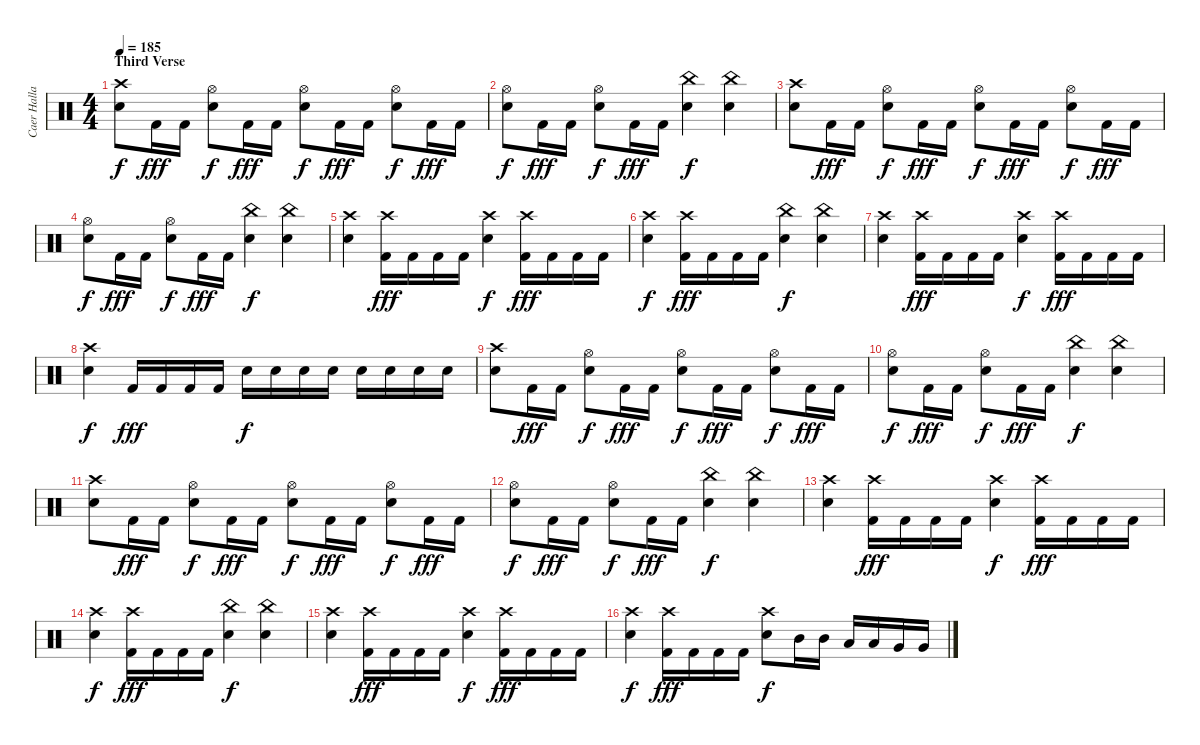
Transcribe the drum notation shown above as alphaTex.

\track ("Caer Hallam Generis" "Caer Halla") {instrument percussion}
\staff {score}
\articulation defaults
\ts (4 4)
\section ("" "Third Verse")
\tempo 185
\clef neutral
\ks c
("Crash high (hit)" "Snare (hit) 2").8{dy f} "Kick (hit) 2".16{dy fff} "Kick (hit) 2".16 ("Hi-Hat (open)" "Snare (hit) 2").8{dy f} "Kick (hit) 2".16{dy fff} "Kick (hit) 2".16 ("Hi-Hat (open)" "Snare (hit) 2").8{dy f} "Kick (hit) 2".16{dy fff} "Kick (hit) 2".16 ("Hi-Hat (open)" "Snare (hit) 2").8{dy f} "Kick (hit) 2".16{dy fff} "Kick (hit) 2".16 |
("Hi-Hat (open)" "Snare (hit) 2").8{dy f} "Kick (hit) 2".16{dy fff} "Kick (hit) 2".16 ("Hi-Hat (open)" "Snare (hit) 2").8{dy f} "Kick (hit) 2".16{dy fff} "Kick (hit) 2".16 ("China (hit)" "Snare (hit) 2").4{dy f} ("China (hit)" "Snare (hit) 2").4 |
("Crash high (hit)" "Snare (hit) 2").8 "Kick (hit) 2".16{dy fff} "Kick (hit) 2".16 ("Hi-Hat (open)" "Snare (hit) 2").8{dy f} "Kick (hit) 2".16{dy fff} "Kick (hit) 2".16 ("Hi-Hat (open)" "Snare (hit) 2").8{dy f} "Kick (hit) 2".16{dy fff} "Kick (hit) 2".16 ("Hi-Hat (open)" "Snare (hit) 2").8{dy f} "Kick (hit) 2".16{dy fff} "Kick (hit) 2".16 |
("Hi-Hat (open)" "Snare (hit) 2").8{dy f} "Kick (hit) 2".16{dy fff} "Kick (hit) 2".16 ("Hi-Hat (open)" "Snare (hit) 2").8{dy f} "Kick (hit) 2".16{dy fff} "Kick (hit) 2".16 ("China (hit)" "Snare (hit) 2").4{dy f} ("China (hit)" "Snare (hit) 2").4 |
("Crash high (hit)" "Snare (hit) 2").4 ("Crash high (hit)" "Kick (hit) 2").16{dy fff} "Kick (hit) 2".16 "Kick (hit) 2".16 "Kick (hit) 2".16 ("Crash high (hit)" "Snare (hit) 2").4{dy f} ("Crash high (hit)" "Kick (hit) 2").16{dy fff} "Kick (hit) 2".16 "Kick (hit) 2".16 "Kick (hit) 2".16 |
("Crash high (hit)" "Snare (hit) 2").4{dy f} ("Crash high (hit)" "Kick (hit) 2").16{dy fff} "Kick (hit) 2".16 "Kick (hit) 2".16 "Kick (hit) 2".16 ("China (hit)" "Snare (hit) 2").4{dy f} ("China (hit)" "Snare (hit) 2").4 |
("Crash high (hit)" "Snare (hit) 2").4 ("Crash high (hit)" "Kick (hit) 2").16{dy fff} "Kick (hit) 2".16 "Kick (hit) 2".16 "Kick (hit) 2".16 ("Crash high (hit)" "Snare (hit) 2").4{dy f} ("Crash high (hit)" "Kick (hit) 2").16{dy fff} "Kick (hit) 2".16 "Kick (hit) 2".16 "Kick (hit) 2".16 |
("Crash high (hit)" "Snare (hit) 2").4{dy f} "Kick (hit) 2".16{dy fff} "Kick (hit) 2".16 "Kick (hit) 2".16 "Kick (hit) 2".16 "Snare (hit) 2".16{dy f} "Snare (hit) 2".16 "Snare (hit) 2".16 "Snare (hit) 2".16 "Snare (hit) 2".16 "Snare (hit) 2".16 "Snare (hit) 2".16 "Snare (hit) 2".16 |
("Crash high (hit)" "Snare (hit) 2").8 "Kick (hit) 2".16{dy fff} "Kick (hit) 2".16 ("Hi-Hat (open)" "Snare (hit) 2").8{dy f} "Kick (hit) 2".16{dy fff} "Kick (hit) 2".16 ("Hi-Hat (open)" "Snare (hit) 2").8{dy f} "Kick (hit) 2".16{dy fff} "Kick (hit) 2".16 ("Hi-Hat (open)" "Snare (hit) 2").8{dy f} "Kick (hit) 2".16{dy fff} "Kick (hit) 2".16 |
("Hi-Hat (open)" "Snare (hit) 2").8{dy f} "Kick (hit) 2".16{dy fff} "Kick (hit) 2".16 ("Hi-Hat (open)" "Snare (hit) 2").8{dy f} "Kick (hit) 2".16{dy fff} "Kick (hit) 2".16 ("China (hit)" "Snare (hit) 2").4{dy f} ("China (hit)" "Snare (hit) 2").4 |
("Crash high (hit)" "Snare (hit) 2").8 "Kick (hit) 2".16{dy fff} "Kick (hit) 2".16 ("Hi-Hat (open)" "Snare (hit) 2").8{dy f} "Kick (hit) 2".16{dy fff} "Kick (hit) 2".16 ("Hi-Hat (open)" "Snare (hit) 2").8{dy f} "Kick (hit) 2".16{dy fff} "Kick (hit) 2".16 ("Hi-Hat (open)" "Snare (hit) 2").8{dy f} "Kick (hit) 2".16{dy fff} "Kick (hit) 2".16 |
("Hi-Hat (open)" "Snare (hit) 2").8{dy f} "Kick (hit) 2".16{dy fff} "Kick (hit) 2".16 ("Hi-Hat (open)" "Snare (hit) 2").8{dy f} "Kick (hit) 2".16{dy fff} "Kick (hit) 2".16 ("China (hit)" "Snare (hit) 2").4{dy f} ("China (hit)" "Snare (hit) 2").4 |
("Crash high (hit)" "Snare (hit) 2").4 ("Crash high (hit)" "Kick (hit) 2").16{dy fff} "Kick (hit) 2".16 "Kick (hit) 2".16 "Kick (hit) 2".16 ("Crash high (hit)" "Snare (hit) 2").4{dy f} ("Crash high (hit)" "Kick (hit) 2").16{dy fff} "Kick (hit) 2".16 "Kick (hit) 2".16 "Kick (hit) 2".16 |
("Crash high (hit)" "Snare (hit) 2").4{dy f} ("Crash high (hit)" "Kick (hit) 2").16{dy fff} "Kick (hit) 2".16 "Kick (hit) 2".16 "Kick (hit) 2".16 ("China (hit)" "Snare (hit) 2").4{dy f} ("China (hit)" "Snare (hit) 2").4 |
("Crash high (hit)" "Snare (hit) 2").4 ("Crash high (hit)" "Kick (hit) 2").16{dy fff} "Kick (hit) 2".16 "Kick (hit) 2".16 "Kick (hit) 2".16 ("Crash high (hit)" "Snare (hit) 2").4{dy f} ("Crash high (hit)" "Kick (hit) 2").16{dy fff} "Kick (hit) 2".16 "Kick (hit) 2".16 "Kick (hit) 2".16 |
("Crash high (hit)" "Snare (hit) 2").4{dy f} ("Crash high (hit)" "Kick (hit) 2").16{dy fff} "Kick (hit) 2".16 "Kick (hit) 2".16 "Kick (hit) 2".16 ("Crash high (hit)" "Snare (hit) 2").8{dy f} "Mid Tom (hit)".16 "Mid Tom (hit)".16 "Low Tom (hit)".16 "Low Tom (hit)".16 "Very Low Tom (hit)".16 "Very Low Tom (hit)".16
